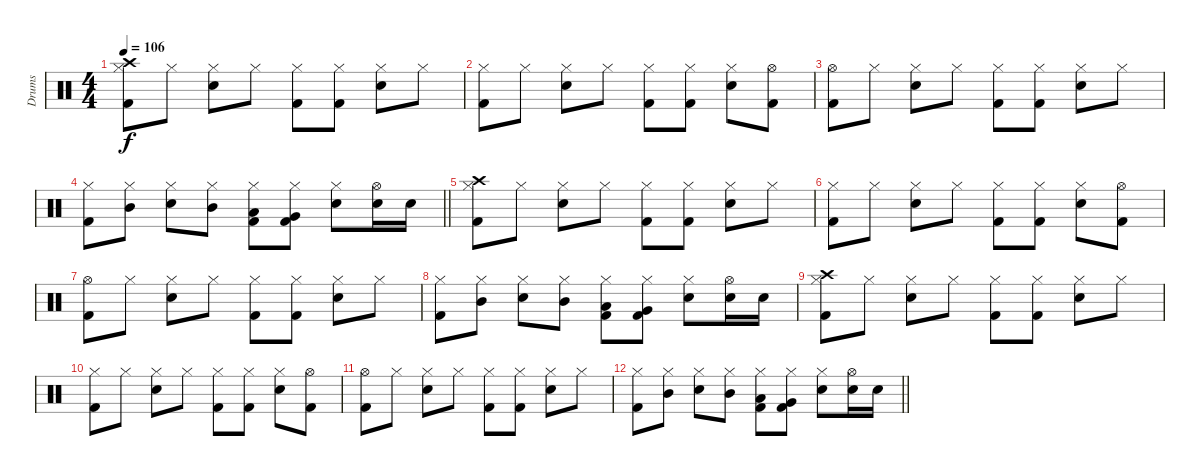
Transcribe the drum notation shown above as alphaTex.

\track ("Drums" "Drums") {instrument percussion}
\staff
\articulation defaults
\ts (4 4)
\tempo 106
\clef neutral
\ks c
("Hi-Hat (closed)" "Crash high (hit)" "Kick (hit) 2").8{dy f} "Hi-Hat (closed)".8 ("Snare (hit) 2" "Hi-Hat (closed)").8 "Hi-Hat (closed)".8 ("Hi-Hat (closed)" "Kick (hit) 2").8 ("Hi-Hat (closed)" "Kick (hit) 2").8 ("Snare (hit) 2" "Hi-Hat (closed)").8 "Hi-Hat (closed)".8 |
("Hi-Hat (closed)" "Kick (hit) 2").8 "Hi-Hat (closed)".8 ("Snare (hit) 2" "Hi-Hat (closed)").8 "Hi-Hat (closed)".8 ("Hi-Hat (closed)" "Kick (hit) 2").8 ("Hi-Hat (closed)" "Kick (hit) 2").8 ("Snare (hit) 2" "Hi-Hat (closed)").8 ("Hi-Hat (open)" "Kick (hit) 2").8 |
("Hi-Hat (open)" "Kick (hit) 2").8 "Hi-Hat (closed)".8 ("Snare (hit) 2" "Hi-Hat (closed)").8 "Hi-Hat (closed)".8 ("Hi-Hat (closed)" "Kick (hit) 2").8 ("Hi-Hat (closed)" "Kick (hit) 2").8 ("Snare (hit) 2" "Hi-Hat (closed)").8 "Hi-Hat (closed)".8 |
\barLineRight lightlight
("Hi-Hat (closed)" "Kick (hit) 2").8 ("Hi-Hat (closed)" "Mid Tom (hit)").8 ("Snare (hit) 2" "Hi-Hat (closed)").8 ("Hi-Hat (closed)" "Mid Tom (hit)").8 ("Hi-Hat (closed)" "Low Tom (hit)" "Kick (hit) 2").8 ("Hi-Hat (closed)" "Very Low Tom (hit)" "Kick (hit) 2").8 ("Snare (hit) 2" "Hi-Hat (closed)").8 ("Snare (hit) 2" "Hi-Hat (open)").16 "Snare (hit) 2".16 |
("Hi-Hat (closed)" "Crash high (hit)" "Kick (hit) 2").8 "Hi-Hat (closed)".8 ("Snare (hit) 2" "Hi-Hat (closed)").8 "Hi-Hat (closed)".8 ("Hi-Hat (closed)" "Kick (hit) 2").8 ("Hi-Hat (closed)" "Kick (hit) 2").8 ("Snare (hit) 2" "Hi-Hat (closed)").8 "Hi-Hat (closed)".8 |
("Hi-Hat (closed)" "Kick (hit) 2").8 "Hi-Hat (closed)".8 ("Snare (hit) 2" "Hi-Hat (closed)").8 "Hi-Hat (closed)".8 ("Hi-Hat (closed)" "Kick (hit) 2").8 ("Hi-Hat (closed)" "Kick (hit) 2").8 ("Snare (hit) 2" "Hi-Hat (closed)").8 ("Hi-Hat (open)" "Kick (hit) 2").8 |
("Hi-Hat (open)" "Kick (hit) 2").8 "Hi-Hat (closed)".8 ("Snare (hit) 2" "Hi-Hat (closed)").8 "Hi-Hat (closed)".8 ("Hi-Hat (closed)" "Kick (hit) 2").8 ("Hi-Hat (closed)" "Kick (hit) 2").8 ("Snare (hit) 2" "Hi-Hat (closed)").8 "Hi-Hat (closed)".8 |
("Hi-Hat (closed)" "Kick (hit) 2").8 ("Hi-Hat (closed)" "Mid Tom (hit)").8 ("Snare (hit) 2" "Hi-Hat (closed)").8 ("Hi-Hat (closed)" "Mid Tom (hit)").8 ("Hi-Hat (closed)" "Low Tom (hit)" "Kick (hit) 2").8 ("Hi-Hat (closed)" "Very Low Tom (hit)" "Kick (hit) 2").8 ("Snare (hit) 2" "Hi-Hat (closed)").8 ("Snare (hit) 2" "Hi-Hat (open)").16 "Snare (hit) 2".16 |
("Hi-Hat (closed)" "Crash high (hit)" "Kick (hit) 2").8 "Hi-Hat (closed)".8 ("Snare (hit) 2" "Hi-Hat (closed)").8 "Hi-Hat (closed)".8 ("Hi-Hat (closed)" "Kick (hit) 2").8 ("Hi-Hat (closed)" "Kick (hit) 2").8 ("Snare (hit) 2" "Hi-Hat (closed)").8 "Hi-Hat (closed)".8 |
("Hi-Hat (closed)" "Kick (hit) 2").8 "Hi-Hat (closed)".8 ("Snare (hit) 2" "Hi-Hat (closed)").8 "Hi-Hat (closed)".8 ("Hi-Hat (closed)" "Kick (hit) 2").8 ("Hi-Hat (closed)" "Kick (hit) 2").8 ("Snare (hit) 2" "Hi-Hat (closed)").8 ("Hi-Hat (open)" "Kick (hit) 2").8 |
("Hi-Hat (open)" "Kick (hit) 2").8 "Hi-Hat (closed)".8 ("Snare (hit) 2" "Hi-Hat (closed)").8 "Hi-Hat (closed)".8 ("Hi-Hat (closed)" "Kick (hit) 2").8 ("Hi-Hat (closed)" "Kick (hit) 2").8 ("Snare (hit) 2" "Hi-Hat (closed)").8 "Hi-Hat (closed)".8 |
\barLineRight lightlight
("Hi-Hat (closed)" "Kick (hit) 2").8 ("Hi-Hat (closed)" "Mid Tom (hit)").8 ("Snare (hit) 2" "Hi-Hat (closed)").8 ("Hi-Hat (closed)" "Mid Tom (hit)").8 ("Hi-Hat (closed)" "Low Tom (hit)" "Kick (hit) 2").8 ("Hi-Hat (closed)" "Very Low Tom (hit)" "Kick (hit) 2").8 ("Snare (hit) 2" "Hi-Hat (closed)").8 ("Snare (hit) 2" "Hi-Hat (open)").16 "Snare (hit) 2".16
